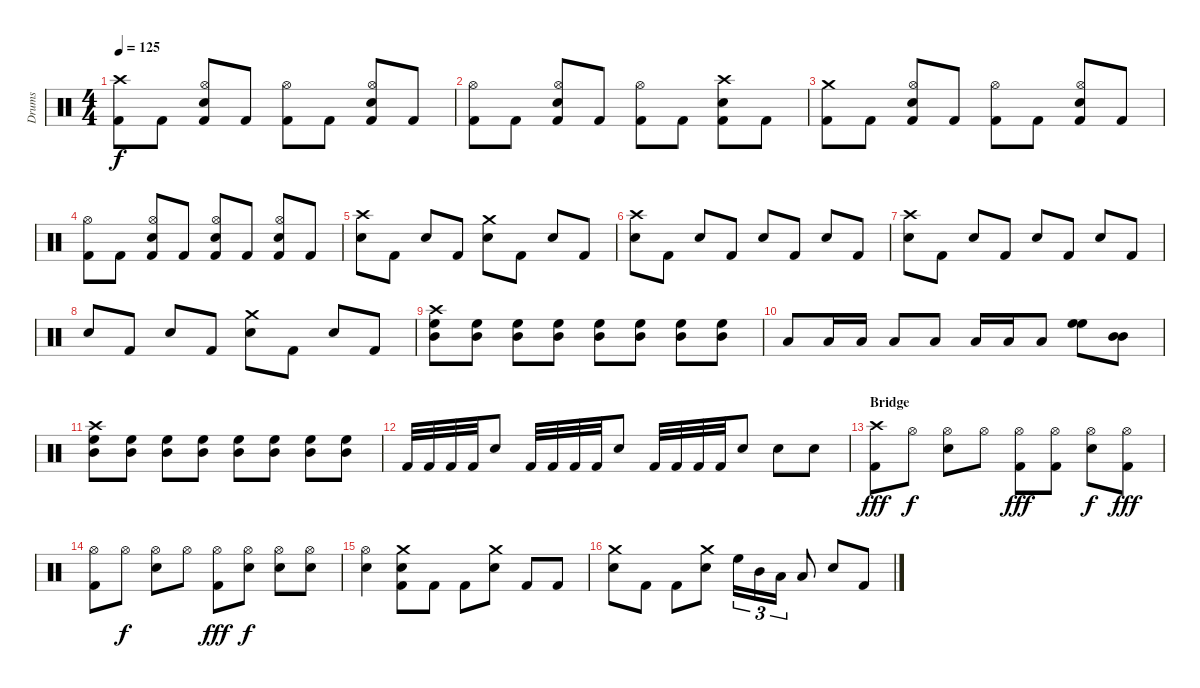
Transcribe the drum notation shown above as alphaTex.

\track ("Drums" "Drums") {instrument percussion}
\staff {score}
\articulation defaults
\ts (4 4)
\tempo 125
\clef neutral
\ks c
("Crash high (hit)" "Kick (hit) 2").8{dy f} "Kick (hit) 2".8 ("Hi-Hat (open)" "Snare (hit) 2" "Kick (hit) 2").8 "Kick (hit) 2".8 ("Hi-Hat (open)" "Kick (hit) 2").8 "Kick (hit) 2".8 ("Hi-Hat (open)" "Snare (hit) 2" "Kick (hit) 2").8 "Kick (hit) 2".8 |
("Hi-Hat (open)" "Kick (hit) 2").8 "Kick (hit) 2".8 ("Hi-Hat (open)" "Snare (hit) 2" "Kick (hit) 2").8 "Kick (hit) 2".8 ("Hi-Hat (open)" "Kick (hit) 2").8 "Kick (hit) 2".8 ("Crash high (hit)" "Snare (hit) 2" "Kick (hit) 2").8 "Kick (hit) 2".8 |
("Crash medium (hit)" "Kick (hit) 2").8 "Kick (hit) 2".8 ("Hi-Hat (open)" "Snare (hit) 2" "Kick (hit) 2").8 "Kick (hit) 2".8 ("Hi-Hat (open)" "Kick (hit) 2").8 "Kick (hit) 2".8 ("Hi-Hat (open)" "Snare (hit) 2" "Kick (hit) 2").8 "Kick (hit) 2".8 |
("Hi-Hat (open)" "Kick (hit) 2").8 "Kick (hit) 2".8 ("Hi-Hat (open)" "Snare (hit) 2" "Kick (hit) 2").8 "Kick (hit) 2".8 ("Hi-Hat (open)" "Snare (hit) 2" "Kick (hit) 2").8 "Kick (hit) 2".8 ("Hi-Hat (open)" "Snare (hit) 2" "Kick (hit) 2").8 "Kick (hit) 2".8 |
("Crash high (hit)" "Snare (hit) 2").8 "Kick (hit) 2".8 "Snare (hit) 2".8 "Kick (hit) 2".8 ("Crash medium (hit)" "Snare (hit) 2").8 "Kick (hit) 2".8 "Snare (hit) 2".8 "Kick (hit) 2".8 |
("Crash high (hit)" "Snare (hit) 2").8 "Kick (hit) 2".8 "Snare (hit) 2".8 "Kick (hit) 2".8 "Snare (hit) 2".8 "Kick (hit) 2".8 "Snare (hit) 2".8 "Kick (hit) 2".8 |
("Crash high (hit)" "Snare (hit) 2").8 "Kick (hit) 2".8 "Snare (hit) 2".8 "Kick (hit) 2".8 "Snare (hit) 2".8 "Kick (hit) 2".8 "Snare (hit) 2".8 "Kick (hit) 2".8 |
"Snare (hit) 2".8 "Kick (hit) 2".8 "Snare (hit) 2".8 "Kick (hit) 2".8 ("Crash medium (hit)" "Snare (hit) 2").8 "Kick (hit) 2".8 "Snare (hit) 2".8 "Kick (hit) 2".8 |
("Crash high (hit)" "High Floor Tom (hit)" "Mid Tom (hit)").8 ("High Floor Tom (hit)" "Mid Tom (hit)").8 ("High Floor Tom (hit)" "Mid Tom (hit)").8 ("High Floor Tom (hit)" "Mid Tom (hit)").8 ("High Floor Tom (hit)" "Mid Tom (hit)").8 ("High Floor Tom (hit)" "Mid Tom (hit)").8 ("High Floor Tom (hit)" "Mid Tom (hit)").8 ("High Floor Tom (hit)" "Mid Tom (hit)").8 |
"Low Tom (hit)".8 "Low Floor Tom (hit)".16 "Low Floor Tom (hit)".16 "Low Floor Tom (hit)".8 "Low Tom (hit)".8 "Low Floor Tom (hit)".16 "Low Floor Tom (hit)".16 "Low Floor Tom (hit)".8 ("High Floor Tom (hit)" "High Floor Tom (hit)").8 ("Mid Tom (hit)" "Mid Tom (hit)").8 |
("Crash high (hit)" "High Floor Tom (hit)" "Mid Tom (hit)").8 ("High Floor Tom (hit)" "Mid Tom (hit)").8 ("High Floor Tom (hit)" "Mid Tom (hit)").8 ("High Floor Tom (hit)" "Mid Tom (hit)").8 ("High Floor Tom (hit)" "Mid Tom (hit)").8 ("High Floor Tom (hit)" "Mid Tom (hit)").8 ("High Floor Tom (hit)" "Mid Tom (hit)").8 ("High Floor Tom (hit)" "Mid Tom (hit)").8 |
"Kick (hit) 2".32 "Kick (hit) 2".32 "Kick (hit) 2".32 "Kick (hit) 2".32 "Snare (hit) 2".8 "Kick (hit) 2".32 "Kick (hit) 2".32 "Kick (hit) 2".32 "Kick (hit) 2".32 "Snare (hit) 2".8 "Kick (hit) 2".32 "Kick (hit) 2".32 "Kick (hit) 2".32 "Kick (hit) 2".32 "Snare (hit) 2".8 "Snare (hit) 2".8 "Snare (hit) 2".8 |
\section ("" "Bridge")
("Crash high (hit)" "Kick (hit) 2").8{dy fff} "Hi-Hat (open)".8{dy f} ("Hi-Hat (open)" "Snare (hit) 2").8 "Hi-Hat (open)".8 ("Hi-Hat (open)" "Kick (hit) 2").8{dy fff} ("Hi-Hat (open)" "Kick (hit) 2").8 ("Hi-Hat (open)" "Snare (hit) 2").8{dy f} ("Hi-Hat (open)" "Kick (hit) 2").8{dy fff} |
("Hi-Hat (open)" "Kick (hit) 2").8 "Hi-Hat (open)".8{dy f} ("Hi-Hat (open)" "Snare (hit) 2").8 "Hi-Hat (open)".8 ("Hi-Hat (open)" "Kick (hit) 2").8{dy fff} ("Hi-Hat (open)" "Snare (hit) 2").8{dy f} ("Hi-Hat (open)" "Snare (hit) 2").8 ("Hi-Hat (open)" "Snare (hit) 2").8 |
("Hi-Hat (open)" "Snare (hit) 2").4 ("Crash medium (hit)" "Snare (hit) 2" "Kick (hit) 2").8 "Kick (hit) 2".8 "Kick (hit) 2".8 ("Crash medium (hit)" "Snare (hit) 2").8 "Kick (hit) 2".8 "Kick (hit) 2".8 |
("Crash medium (hit)" "Snare (hit) 2").8 "Kick (hit) 2".8 "Kick (hit) 2".8 ("Crash medium (hit)" "Snare (hit) 2").8 "High Floor Tom (hit)".16{tu (3 2)} "Mid Tom (hit)".16{tu (3 2)} "Low Tom (hit)".16{tu (3 2)} "Low Floor Tom (hit)".8 "Snare (hit) 2".8 "Kick (hit) 2".8
